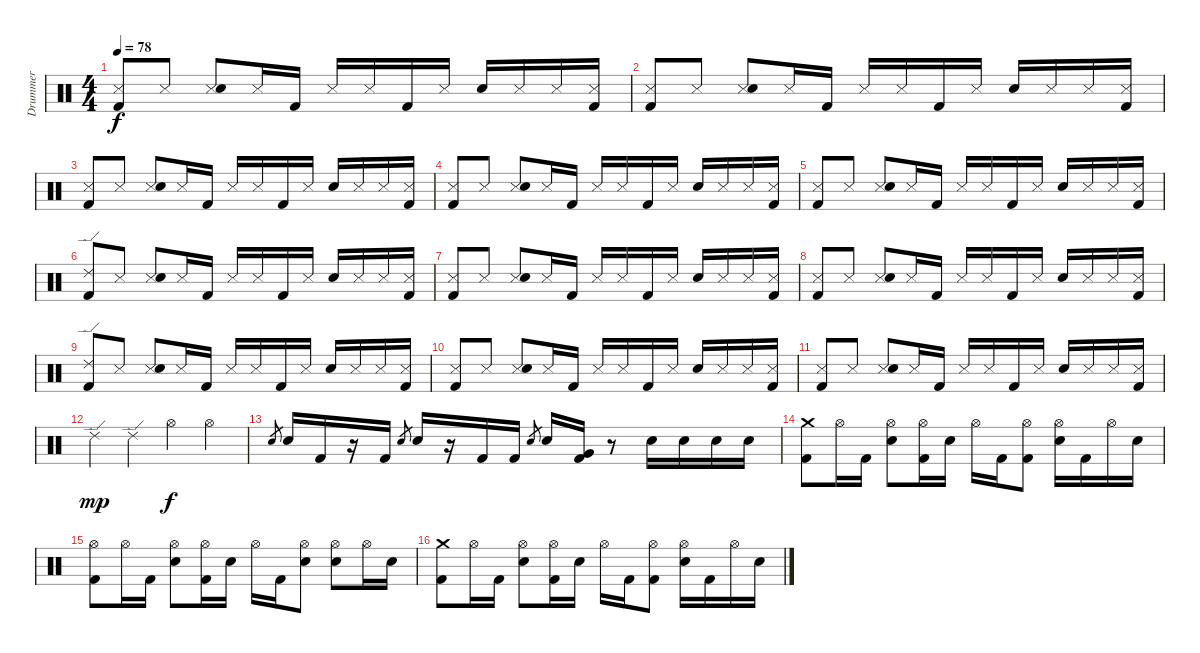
\track ("Drummer" "Drummer") {instrument percussion}
\staff {score}
\articulation defaults
\ts (4 4)
\tempo 78
\clef neutral
\ks c
("Snare (side stick) 3" "Kick (hit) 2").8{dy f} "Snare (side stick) 3".8 ("Snare (side stick) 3" "Electric Snare (hit)").8 "Snare (side stick) 3".16 "Kick (hit) 2".16 "Snare (side stick) 3".16 "Snare (side stick) 3".16 "Kick (hit) 2".16 "Snare (side stick) 3".16 "Electric Snare (hit)".16 "Snare (side stick) 3".16 "Snare (side stick) 3".16 ("Snare (side stick) 3" "Kick (hit) 2").16 |
("Snare (side stick) 3" "Kick (hit) 2").8 "Snare (side stick) 3".8 ("Snare (side stick) 3" "Electric Snare (hit)").8 "Snare (side stick) 3".16 "Kick (hit) 2".16 "Snare (side stick) 3".16 "Snare (side stick) 3".16 "Kick (hit) 2".16 "Snare (side stick) 3".16 "Electric Snare (hit)".16 "Snare (side stick) 3".16 "Snare (side stick) 3".16 ("Snare (side stick) 3" "Kick (hit) 2").16 |
("Snare (side stick) 3" "Kick (hit) 2").8 "Snare (side stick) 3".8 ("Snare (side stick) 3" "Electric Snare (hit)").8 "Snare (side stick) 3".16 "Kick (hit) 2".16 "Snare (side stick) 3".16 "Snare (side stick) 3".16 "Kick (hit) 2".16 "Snare (side stick) 3".16 "Electric Snare (hit)".16 "Snare (side stick) 3".16 "Snare (side stick) 3".16 ("Snare (side stick) 3" "Kick (hit) 2").16 |
("Snare (side stick) 3" "Kick (hit) 2").8 "Snare (side stick) 3".8 ("Snare (side stick) 3" "Electric Snare (hit)").8 "Snare (side stick) 3".16 "Kick (hit) 2".16 "Snare (side stick) 3".16 "Snare (side stick) 3".16 "Kick (hit) 2".16 "Snare (side stick) 3".16 "Electric Snare (hit)".16 "Snare (side stick) 3".16 "Snare (side stick) 3".16 ("Snare (side stick) 3" "Kick (hit) 2").16 |
("Snare (side stick) 3" "Kick (hit) 2").8 "Snare (side stick) 3".8 ("Snare (side stick) 3" "Electric Snare (hit)").8 "Snare (side stick) 3".16 "Kick (hit) 2".16 "Snare (side stick) 3".16 "Snare (side stick) 3".16 "Kick (hit) 2".16 "Snare (side stick) 3".16 "Electric Snare (hit)".16 "Snare (side stick) 3".16 "Snare (side stick) 3".16 ("Snare (side stick) 3" "Kick (hit) 2").16 |
("Ride (edge) 2" "Kick (hit) 2").8 "Snare (side stick) 3".8 ("Snare (side stick) 3" "Electric Snare (hit)").8 "Snare (side stick) 3".16 "Kick (hit) 2".16 "Snare (side stick) 3".16 "Snare (side stick) 3".16 "Kick (hit) 2".16 "Snare (side stick) 3".16 "Electric Snare (hit)".16 "Snare (side stick) 3".16 "Snare (side stick) 3".16 ("Snare (side stick) 3" "Kick (hit) 2").16 |
("Snare (side stick) 3" "Kick (hit) 2").8 "Snare (side stick) 3".8 ("Snare (side stick) 3" "Electric Snare (hit)").8 "Snare (side stick) 3".16 "Kick (hit) 2".16 "Snare (side stick) 3".16 "Snare (side stick) 3".16 "Kick (hit) 2".16 "Snare (side stick) 3".16 "Electric Snare (hit)".16 "Snare (side stick) 3".16 "Snare (side stick) 3".16 ("Snare (side stick) 3" "Kick (hit) 2").16 |
("Snare (side stick) 3" "Kick (hit) 2").8 "Snare (side stick) 3".8 ("Snare (side stick) 3" "Electric Snare (hit)").8 "Snare (side stick) 3".16 "Kick (hit) 2".16 "Snare (side stick) 3".16 "Snare (side stick) 3".16 "Kick (hit) 2".16 "Snare (side stick) 3".16 "Electric Snare (hit)".16 "Snare (side stick) 3".16 "Snare (side stick) 3".16 ("Snare (side stick) 3" "Kick (hit) 2").16 |
("Ride (edge) 2" "Kick (hit) 2").8 "Snare (side stick) 3".8 ("Snare (side stick) 3" "Electric Snare (hit)").8 "Snare (side stick) 3".16 "Kick (hit) 2".16 "Snare (side stick) 3".16 "Snare (side stick) 3".16 "Kick (hit) 2".16 "Snare (side stick) 3".16 "Electric Snare (hit)".16 "Snare (side stick) 3".16 "Snare (side stick) 3".16 ("Snare (side stick) 3" "Kick (hit) 2").16 |
("Snare (side stick) 3" "Kick (hit) 2").8 "Snare (side stick) 3".8 ("Snare (side stick) 3" "Electric Snare (hit)").8 "Snare (side stick) 3".16 "Kick (hit) 2".16 "Snare (side stick) 3".16 "Snare (side stick) 3".16 "Kick (hit) 2".16 "Snare (side stick) 3".16 "Electric Snare (hit)".16 "Snare (side stick) 3".16 "Snare (side stick) 3".16 ("Snare (side stick) 3" "Kick (hit) 2").16 |
("Snare (side stick) 3" "Kick (hit) 2").8 "Snare (side stick) 3".8 ("Snare (side stick) 3" "Electric Snare (hit)").8 "Snare (side stick) 3".16 "Kick (hit) 2".16 "Snare (side stick) 3".16 "Snare (side stick) 3".16 "Kick (hit) 2".16 "Snare (side stick) 3".16 "Electric Snare (hit)".16 "Snare (side stick) 3".16 "Snare (side stick) 3".16 ("Snare (side stick) 3" "Kick (hit) 2").16 |
"Ride (edge) 2".4{dy mp} "Ride (edge) 2".4 "Hi-Hat (open)".4{dy f} "Hi-Hat (open)".4 |
"Electric Snare (hit)".8{gr beam merge} "Electric Snare (hit)".16 "Kick (hit) 2".16 r.16 "Kick (hit) 2".16 "Electric Snare (hit)".8{gr beam merge} "Electric Snare (hit)".16 r.16 "Kick (hit) 2".16 "Kick (hit) 2".16 "Electric Snare (hit)".8{gr beam merge} "Electric Snare (hit)".16 ("Very Low Tom (hit)" "Kick (hit) 2").16 r.8 "Electric Snare (hit)".16 "Electric Snare (hit)".16 "Electric Snare (hit)".16 "Electric Snare (hit)".16 |
("Crash medium (hit)" "Kick (hit) 2").8 "Hi-Hat (open)".16 "Kick (hit) 2".16 ("Hi-Hat (open)" "Electric Snare (hit)").8 ("Hi-Hat (open)" "Kick (hit) 2").16 "Electric Snare (hit)".16 "Hi-Hat (open)".16 "Kick (hit) 2".16 ("Hi-Hat (open)" "Kick (hit) 2").8 ("Hi-Hat (open)" "Electric Snare (hit)").16 "Kick (hit) 2".16 "Hi-Hat (open)".16 "Electric Snare (hit)".16 |
("Hi-Hat (open)" "Kick (hit) 2").8 "Hi-Hat (open)".16 "Kick (hit) 2".16 ("Hi-Hat (open)" "Electric Snare (hit)").8 ("Hi-Hat (open)" "Kick (hit) 2").16 "Electric Snare (hit)".16 "Hi-Hat (open)".16 "Kick (hit) 2".16 ("Hi-Hat (open)" "Electric Snare (hit)").8 ("Hi-Hat (open)" "Electric Snare (hit)").8 "Hi-Hat (open)".16 "Electric Snare (hit)".16 |
("Crash medium (hit)" "Kick (hit) 2").8 "Hi-Hat (open)".16 "Kick (hit) 2".16 ("Hi-Hat (open)" "Electric Snare (hit)").8 ("Hi-Hat (open)" "Kick (hit) 2").16 "Electric Snare (hit)".16 "Hi-Hat (open)".16 "Kick (hit) 2".16 ("Hi-Hat (open)" "Kick (hit) 2").8 ("Hi-Hat (open)" "Electric Snare (hit)").16 "Kick (hit) 2".16 "Hi-Hat (open)".16 "Electric Snare (hit)".16
